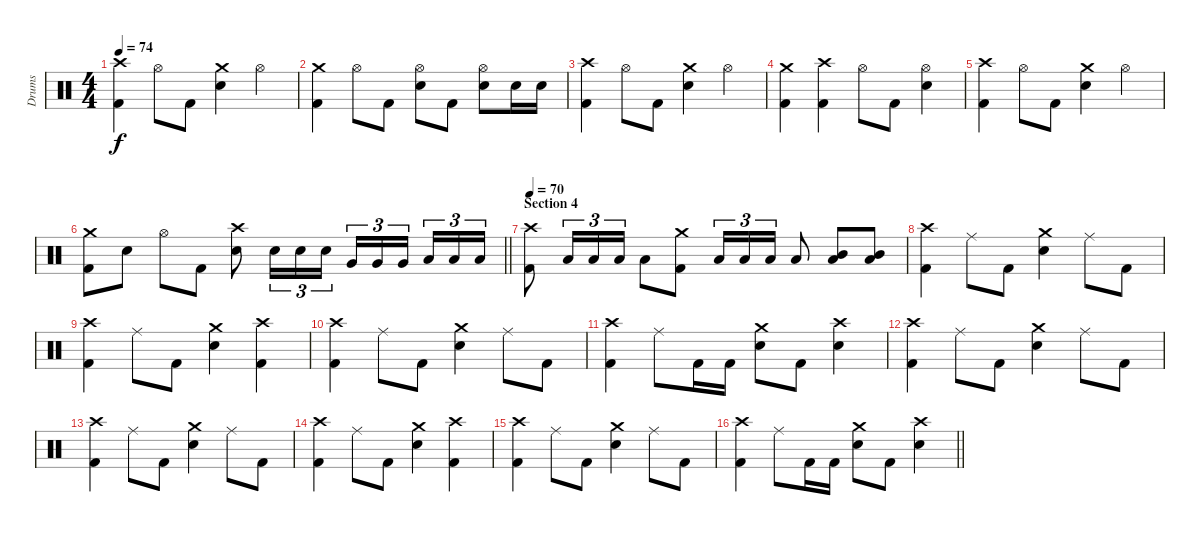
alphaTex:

\track ("Drums" "Drums") {instrument percussion}
\staff {score}
\articulation defaults
\ts (4 4)
\tempo 74
\clef neutral
\ks c
("Crash high (hit)" "Kick (hit) 2").4{dy f} "Hi-Hat (open)".8 "Kick (hit) 2".8 ("Crash medium (hit)" "Electric Snare (hit)").4 "Hi-Hat (open)".4 |
("Crash medium (hit)" "Kick (hit) 2").4 "Hi-Hat (open)".8 "Kick (hit) 2".8 ("Hi-Hat (open)" "Electric Snare (hit)").8 "Kick (hit) 2".8 ("Hi-Hat (open)" "Electric Snare (hit)").8 "Electric Snare (hit)".16 "Electric Snare (hit)".16 |
("Crash high (hit)" "Kick (hit) 2").4 "Hi-Hat (open)".8 "Kick (hit) 2".8 ("Crash medium (hit)" "Electric Snare (hit)").4 "Hi-Hat (open)".4 |
("Crash medium (hit)" "Kick (hit) 2").4 ("Crash high (hit)" "Kick (hit) 2").4 "Hi-Hat (open)".8 "Kick (hit) 2".8 ("Hi-Hat (open)" "Electric Snare (hit)").4 |
("Crash high (hit)" "Kick (hit) 2").4 "Hi-Hat (open)".8 "Kick (hit) 2".8 ("Crash medium (hit)" "Electric Snare (hit)").4 "Hi-Hat (open)".4 |
\barLineRight lightlight
("Crash medium (hit)" "Kick (hit) 2").8 "Electric Snare (hit)".8 "Hi-Hat (open)".8 "Kick (hit) 2".8 ("Crash high (hit)" "Electric Snare (hit)").8 "Electric Snare (hit)".16{tu (3 2)} "Electric Snare (hit)".16{tu (3 2)} "Electric Snare (hit)".16{tu (3 2)} "Very Low Tom (hit)".16{tu (3 2)} "Very Low Tom (hit)".16{tu (3 2)} "Very Low Tom (hit)".16{tu (3 2) beam splitsecondary} "Low Tom (hit)".16{tu (3 2)} "Low Tom (hit)".16{tu (3 2)} "Low Tom (hit)".16{tu (3 2)} |
\section ("" "Section 4")
\tempo 70
("Crash high (hit)" "Kick (hit) 2").8 "Low Tom (hit)".16{tu (3 2)} "Low Tom (hit)".16{tu (3 2)} "Low Tom (hit)".16{tu (3 2)} "Low Tom (hit)".8 ("Crash medium (hit)" "Kick (hit) 2").8 "Low Tom (hit)".16{tu (3 2)} "Low Tom (hit)".16{tu (3 2)} "Low Tom (hit)".16{tu (3 2)} "Low Tom (hit)".8 ("Mid Tom (hit)" "Low Tom (hit)").8{bu 60} ("Mid Tom (hit)" "Low Tom (hit)").8{bu 60} |
("Crash high (hit)" "Kick (hit) 2").4 "Ride (middle)".8 "Kick (hit) 2".8 ("Crash medium (hit)" "Electric Snare (hit)").4 "Ride (middle)".8 "Kick (hit) 2".8 |
("Crash high (hit)" "Kick (hit) 2").4 "Ride (middle)".8 "Kick (hit) 2".8 ("Crash medium (hit)" "Electric Snare (hit)").4 ("Crash high (hit)" "Kick (hit) 2").4 |
("Crash high (hit)" "Kick (hit) 2").4 "Ride (middle)".8 "Kick (hit) 2".8 ("Crash medium (hit)" "Electric Snare (hit)").4 "Ride (middle)".8 "Kick (hit) 2".8 |
("Crash high (hit)" "Kick (hit) 2").4 "Ride (middle)".8 "Kick (hit) 2".16 "Kick (hit) 2".16 ("Crash medium (hit)" "Electric Snare (hit)").8 "Kick (hit) 2".8 ("Crash high (hit)" "Electric Snare (hit)").4 |
("Crash high (hit)" "Kick (hit) 2").4 "Ride (middle)".8 "Kick (hit) 2".8 ("Crash medium (hit)" "Electric Snare (hit)").4 "Ride (middle)".8 "Kick (hit) 2".8 |
("Crash high (hit)" "Kick (hit) 2").4 "Ride (middle)".8 "Kick (hit) 2".8 ("Crash medium (hit)" "Electric Snare (hit)").4 "Ride (middle)".8 "Kick (hit) 2".8 |
("Crash high (hit)" "Kick (hit) 2").4 "Ride (middle)".8 "Kick (hit) 2".8 ("Crash medium (hit)" "Electric Snare (hit)").4 ("Crash high (hit)" "Kick (hit) 2").4 |
("Crash high (hit)" "Kick (hit) 2").4 "Ride (middle)".8 "Kick (hit) 2".8 ("Crash medium (hit)" "Electric Snare (hit)").4 "Ride (middle)".8 "Kick (hit) 2".8 |
\barLineRight lightlight
("Crash high (hit)" "Kick (hit) 2").4 "Ride (middle)".8 "Kick (hit) 2".16 "Kick (hit) 2".16 ("Crash medium (hit)" "Electric Snare (hit)").8 "Kick (hit) 2".8 ("Crash high (hit)" "Electric Snare (hit)").4
